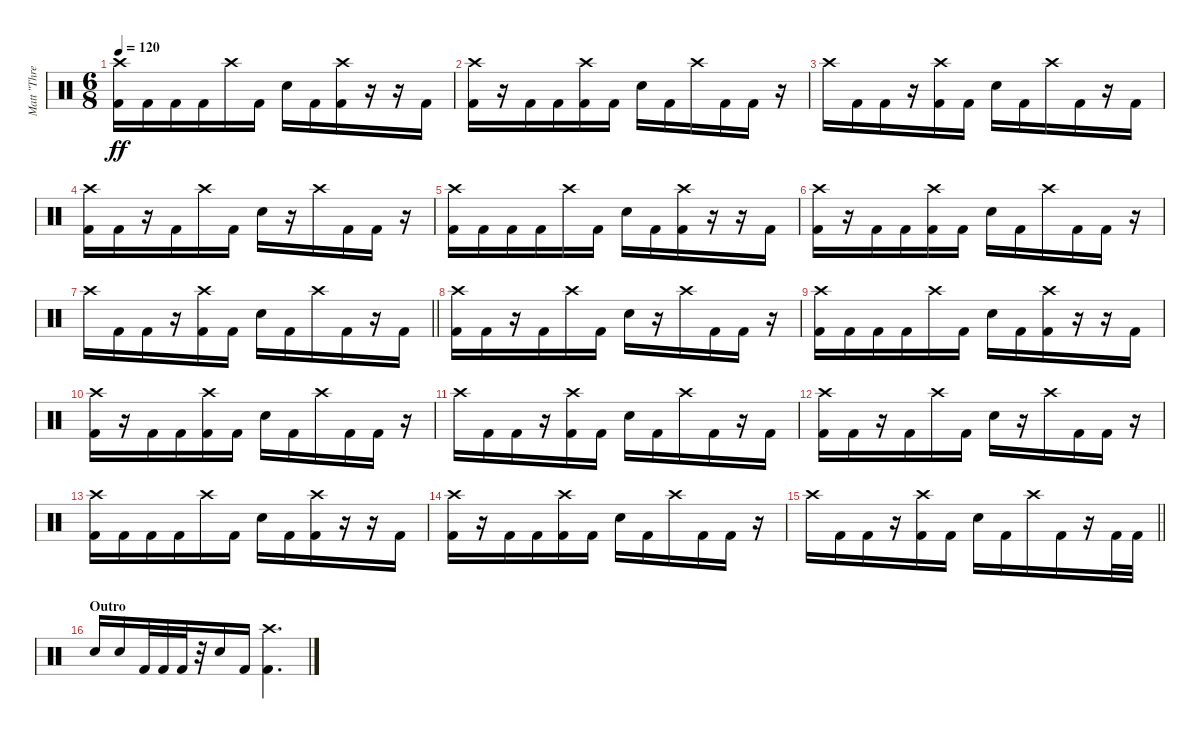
\track ("Matt \"Three Cymbals/Swing\" Halpern" "Matt \"Thre") {instrument percussion}
\staff {score}
\articulation defaults
\ts (6 8)
\tempo 120
\clef neutral
\ks c
("Crash high (hit)" "Kick (hit) 2").16{dy ff} "Kick (hit) 2".16 "Kick (hit) 2".16 "Kick (hit) 2".16 "Crash high (hit)".16 "Kick (hit) 2".16 "Snare (hit) 2".16 "Kick (hit) 2".16 ("Crash high (hit)" "Kick (hit) 2").16 r.16 r.16 "Kick (hit) 2".16 |
("Crash high (hit)" "Kick (hit) 2").16 r.16 "Kick (hit) 2".16 "Kick (hit) 2".16 ("Crash high (hit)" "Kick (hit) 2").16 "Kick (hit) 2".16 "Snare (hit) 2".16 "Kick (hit) 2".16 "Crash high (hit)".16 "Kick (hit) 2".16 "Kick (hit) 2".16 r.16 |
"Crash high (hit)".16 "Kick (hit) 2".16 "Kick (hit) 2".16 r.16 ("Crash high (hit)" "Kick (hit) 2").16 "Kick (hit) 2".16 "Snare (hit) 2".16 "Kick (hit) 2".16 "Crash high (hit)".16 "Kick (hit) 2".16 r.16 "Kick (hit) 2".16 |
("Crash high (hit)" "Kick (hit) 2").16 "Kick (hit) 2".16 r.16 "Kick (hit) 2".16 "Crash high (hit)".16 "Kick (hit) 2".16 "Snare (hit) 2".16 r.16 "Crash high (hit)".16 "Kick (hit) 2".16 "Kick (hit) 2".16 r.16 |
("Crash high (hit)" "Kick (hit) 2").16 "Kick (hit) 2".16 "Kick (hit) 2".16 "Kick (hit) 2".16 "Crash high (hit)".16 "Kick (hit) 2".16 "Snare (hit) 2".16 "Kick (hit) 2".16 ("Crash high (hit)" "Kick (hit) 2").16 r.16 r.16 "Kick (hit) 2".16 |
("Crash high (hit)" "Kick (hit) 2").16 r.16 "Kick (hit) 2".16 "Kick (hit) 2".16 ("Crash high (hit)" "Kick (hit) 2").16 "Kick (hit) 2".16 "Snare (hit) 2".16 "Kick (hit) 2".16 "Crash high (hit)".16 "Kick (hit) 2".16 "Kick (hit) 2".16 r.16 |
\barLineRight lightlight "Crash high (hit)".16 "Kick (hit) 2".16 "Kick (hit) 2".16
r.16 ("Crash high (hit)" "Kick (hit) 2").16 "Kick (hit) 2".16 "Snare (hit) 2".16 "Kick (hit) 2".16 "Crash high (hit)".16 "Kick (hit) 2".16 r.16 "Kick (hit) 2".16 |
("Crash high (hit)" "Kick (hit) 2").16 "Kick (hit) 2".16 r.16 "Kick (hit) 2".16 "Crash high (hit)".16 "Kick (hit) 2".16 "Snare (hit) 2".16 r.16 "Crash high (hit)".16 "Kick (hit) 2".16 "Kick (hit) 2".16 r.16 |
("Crash high (hit)" "Kick (hit) 2").16 "Kick (hit) 2".16 "Kick (hit) 2".16 "Kick (hit) 2".16 "Crash high (hit)".16 "Kick (hit) 2".16 "Snare (hit) 2".16 "Kick (hit) 2".16 ("Crash high (hit)" "Kick (hit) 2").16 r.16 r.16 "Kick (hit) 2".16 |
("Crash high (hit)" "Kick (hit) 2").16 r.16 "Kick (hit) 2".16 "Kick (hit) 2".16 ("Crash high (hit)" "Kick (hit) 2").16 "Kick (hit) 2".16 "Snare (hit) 2".16 "Kick (hit) 2".16 "Crash high (hit)".16 "Kick (hit) 2".16 "Kick (hit) 2".16 r.16 |
"Crash high (hit)".16 "Kick (hit) 2".16 "Kick (hit) 2".16 r.16 ("Crash high (hit)" "Kick (hit) 2").16 "Kick (hit) 2".16 "Snare (hit) 2".16 "Kick (hit) 2".16 "Crash high (hit)".16 "Kick (hit) 2".16 r.16 "Kick (hit) 2".16 |
("Crash high (hit)" "Kick (hit) 2").16 "Kick (hit) 2".16 r.16 "Kick (hit) 2".16 "Crash high (hit)".16 "Kick (hit) 2".16 "Snare (hit) 2".16 r.16 "Crash high (hit)".16 "Kick (hit) 2".16 "Kick (hit) 2".16 r.16 |
("Crash high (hit)" "Kick (hit) 2").16 "Kick (hit) 2".16 "Kick (hit) 2".16 "Kick (hit) 2".16 "Crash high (hit)".16 "Kick (hit) 2".16 "Snare (hit) 2".16 "Kick (hit) 2".16 ("Crash high (hit)" "Kick (hit) 2").16 r.16 r.16 "Kick (hit) 2".16 |
("Crash high (hit)" "Kick (hit) 2").16 r.16 "Kick (hit) 2".16 "Kick (hit) 2".16 ("Crash high (hit)" "Kick (hit) 2").16 "Kick (hit) 2".16 "Snare (hit) 2".16 "Kick (hit) 2".16 "Crash high (hit)".16 "Kick (hit) 2".16 "Kick (hit) 2".16 r.16 |
\barLineRight lightlight "Crash high (hit)".16 "Kick (hit) 2".16 "Kick (hit) 2".16
r.16 ("Crash high (hit)" "Kick (hit) 2").16 "Kick (hit) 2".16 "Snare (hit) 2".16 "Kick (hit) 2".16 "Crash high (hit)".16 "Kick (hit) 2".16 r.16 "Kick (hit) 2".32 "Kick (hit) 2".32 |
\section ("" "Outro")
"Snare (hit) 2".16 "Snare (hit) 2".16 "Kick (hit) 2".32 "Kick (hit) 2".32 "Kick (hit) 2".32 r.32 "Snare (hit) 2".16 "Kick (hit) 2".16 ("Crash high (hit)" "Kick (hit) 2").4{d}
